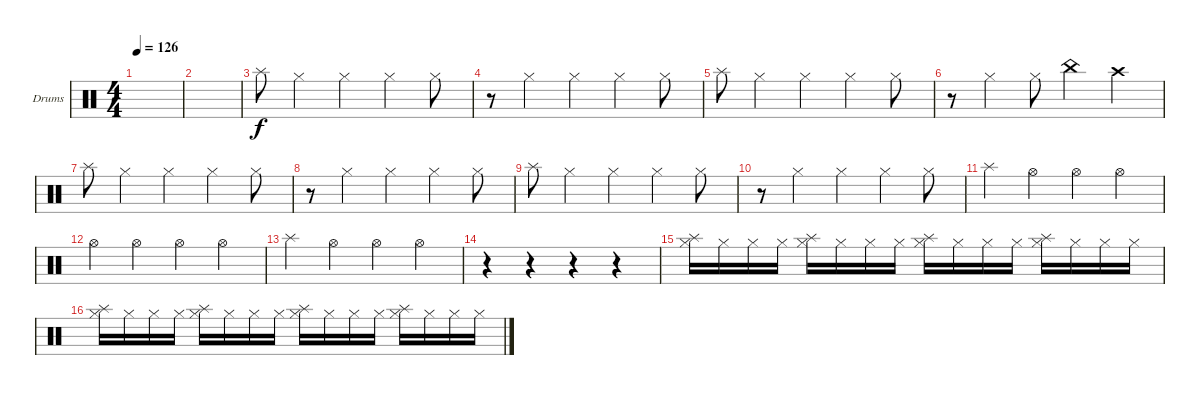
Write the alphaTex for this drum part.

\defaultSystemsLayout 4
\bracketExtendMode groupsimilarinstruments
\firstSystemTrackNameOrientation horizontal
\otherSystemsTrackNameOrientation horizontal
\track ("Drumkit" "Drums") {instrument percussion}
\staff {score}
\articulation defaults
\ts (4 4)
\tempo 126
\clef neutral
\ks c
|
|
"Splash (hit)".8 "Hi-Hat (closed)".4 "Hi-Hat (closed)".4 "Hi-Hat (closed)".4 "Hi-Hat (closed)".8 |
r.8 "Hi-Hat (closed)".4 "Hi-Hat (closed)".4 "Hi-Hat (closed)".4 "Hi-Hat (closed)".8 |
"Splash (hit)".8 "Hi-Hat (closed)".4 "Hi-Hat (closed)".4 "Hi-Hat (closed)".4 "Hi-Hat (closed)".8 |
r.8 "Hi-Hat (closed)".4 "Hi-Hat (closed)".8 "China (hit)".4 "Crash high (hit)".4 |
"Splash (hit)".8 "Hi-Hat (closed)".4 "Hi-Hat (closed)".4 "Hi-Hat (closed)".4 "Hi-Hat (closed)".8 |
r.8 "Hi-Hat (closed)".4 "Hi-Hat (closed)".4 "Hi-Hat (closed)".4 "Hi-Hat (closed)".8 |
"Splash (hit)".8 "Hi-Hat (closed)".4 "Hi-Hat (closed)".4 "Hi-Hat (closed)".4 "Hi-Hat (closed)".8 |
r.8 "Hi-Hat (closed)".4 "Hi-Hat (closed)".4 "Hi-Hat (closed)".4 "Hi-Hat (closed)".8 |
"Splash (hit)".4 "Hi-Hat (open)".4 "Hi-Hat (open)".4 "Hi-Hat (open)".4 |
"Hi-Hat (open)".4 "Hi-Hat (open)".4 "Hi-Hat (open)".4 "Hi-Hat (open)".4 |
"Splash (hit)".4 "Hi-Hat (open)".4 "Hi-Hat (open)".4 "Hi-Hat (open)".4 |
r.4 r.4 r.4 r.4 |
("Hi-Hat (closed)" "Splash (hit)").16 "Hi-Hat (closed)".16 "Hi-Hat (closed)".16 "Hi-Hat (closed)".16 ("Hi-Hat (closed)" "Splash (hit)").16 "Hi-Hat (closed)".16 "Hi-Hat (closed)".16 "Hi-Hat (closed)".16 ("Hi-Hat (closed)" "Splash (hit)").16 "Hi-Hat (closed)".16 "Hi-Hat (closed)".16 "Hi-Hat (closed)".16 ("Hi-Hat (closed)" "Splash (hit)").16 "Hi-Hat (closed)".16 "Hi-Hat (closed)".16 "Hi-Hat (closed)".16 |
("Hi-Hat (closed)" "Splash (hit)").16 "Hi-Hat (closed)".16 "Hi-Hat (closed)".16 "Hi-Hat (closed)".16 ("Hi-Hat (closed)" "Splash (hit)").16 "Hi-Hat (closed)".16 "Hi-Hat (closed)".16 "Hi-Hat (closed)".16 ("Hi-Hat (closed)" "Splash (hit)").16 "Hi-Hat (closed)".16 "Hi-Hat (closed)".16 "Hi-Hat (closed)".16 ("Hi-Hat (closed)" "Splash (hit)").16 "Hi-Hat (closed)".16 "Hi-Hat (closed)".16 "Hi-Hat (closed)".16
